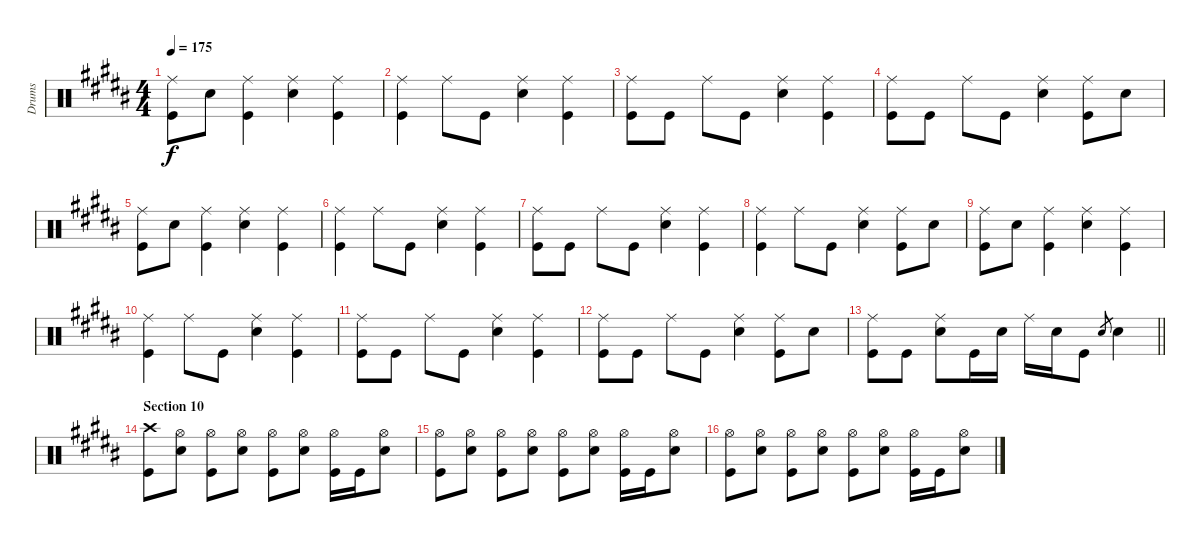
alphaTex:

\track ("Drums" "Drums") {instrument percussion}
\staff {score}
\articulation defaults
\ts (4 4)
\tempo 175
\clef neutral
\ks b
("Ride (middle)" "Kick (hit)").8{dy f} "Snare (hit) 2".8 ("Ride (middle)" "Kick (hit)").4 ("Ride (middle)" "Snare (hit) 2").4 ("Ride (middle)" "Kick (hit)").4 |
("Ride (middle)" "Kick (hit)").4 "Ride (middle)".8 "Kick (hit)".8 ("Ride (middle)" "Snare (hit) 2").4 ("Ride (middle)" "Kick (hit)").4 |
("Ride (middle)" "Kick (hit)").8 "Kick (hit)".8 "Ride (middle)".8 "Kick (hit)".8 ("Ride (middle)" "Snare (hit) 2").4 ("Ride (middle)" "Kick (hit)").4 |
("Ride (middle)" "Kick (hit)").8 "Kick (hit)".8 "Ride (middle)".8 "Kick (hit)".8 ("Ride (middle)" "Snare (hit) 2").4 ("Ride (middle)" "Kick (hit)").8 "Snare (hit) 2".8 |
("Ride (middle)" "Kick (hit)").8 "Snare (hit) 2".8 ("Ride (middle)" "Kick (hit)").4 ("Ride (middle)" "Snare (hit) 2").4 ("Ride (middle)" "Kick (hit)").4 |
("Ride (middle)" "Kick (hit)").4 "Ride (middle)".8 "Kick (hit)".8 ("Ride (middle)" "Snare (hit) 2").4 ("Ride (middle)" "Kick (hit)").4 |
("Ride (middle)" "Kick (hit)").8 "Kick (hit)".8 "Ride (middle)".8 "Kick (hit)".8 ("Ride (middle)" "Snare (hit) 2").4 ("Ride (middle)" "Kick (hit)").4 |
("Ride (middle)" "Kick (hit)").4 "Ride (middle)".8 "Kick (hit)".8 ("Ride (middle)" "Snare (hit) 2").4 ("Ride (middle)" "Kick (hit)").8 "Snare (hit) 2".8 |
("Ride (middle)" "Kick (hit)").8 "Snare (hit) 2".8 ("Ride (middle)" "Kick (hit)").4 ("Ride (middle)" "Snare (hit) 2").4 ("Ride (middle)" "Kick (hit)").4 |
("Ride (middle)" "Kick (hit)").4 "Ride (middle)".8 "Kick (hit)".8 ("Ride (middle)" "Snare (hit) 2").4 ("Ride (middle)" "Kick (hit)").4 |
("Ride (middle)" "Kick (hit)").8 "Kick (hit)".8 "Ride (middle)".8 "Kick (hit)".8 ("Ride (middle)" "Snare (hit) 2").4 ("Ride (middle)" "Kick (hit)").4 |
("Ride (middle)" "Kick (hit)").8 "Kick (hit)".8 "Ride (middle)".8 "Kick (hit)".8 ("Ride (middle)" "Snare (hit) 2").4 ("Ride (middle)" "Kick (hit)").8 "Snare (hit) 2".8 |
\barLineRight lightlight
("Ride (middle)" "Kick (hit)").8 "Kick (hit)".8 ("Ride (middle)" "Snare (hit) 2").8 "Kick (hit)".16 "Snare (hit) 2".16 "Ride (middle)".16 "Snare (hit) 2".16 "Kick (hit)".8 "Snare (hit) 2".8{gr} "Snare (hit) 2".4 |
\section ("" "Section 10")
("Crash high (hit)" "Kick (hit)").8 ("Hi-Hat (open)" "Snare (hit) 2").8 ("Hi-Hat (open)" "Kick (hit)").8 ("Hi-Hat (open)" "Snare (hit) 2").8 ("Hi-Hat (open)" "Kick (hit)").8 ("Hi-Hat (open)" "Snare (hit) 2").8 ("Hi-Hat (open)" "Kick (hit)").16 "Kick (hit)".16 ("Hi-Hat (open)" "Snare (hit) 2").8 |
("Hi-Hat (open)" "Kick (hit)").8 ("Hi-Hat (open)" "Snare (hit) 2").8 ("Hi-Hat (open)" "Kick (hit)").8 ("Hi-Hat (open)" "Snare (hit) 2").8 ("Hi-Hat (open)" "Kick (hit)").8 ("Hi-Hat (open)" "Snare (hit) 2").8 ("Hi-Hat (open)" "Kick (hit)").16 "Kick (hit)".16 ("Hi-Hat (open)" "Snare (hit) 2").8 |
("Hi-Hat (open)" "Kick (hit)").8 ("Hi-Hat (open)" "Snare (hit) 2").8 ("Hi-Hat (open)" "Kick (hit)").8 ("Hi-Hat (open)" "Snare (hit) 2").8 ("Hi-Hat (open)" "Kick (hit)").8 ("Hi-Hat (open)" "Snare (hit) 2").8 ("Hi-Hat (open)" "Kick (hit)").16 "Kick (hit)".16 ("Hi-Hat (open)" "Snare (hit) 2").8
